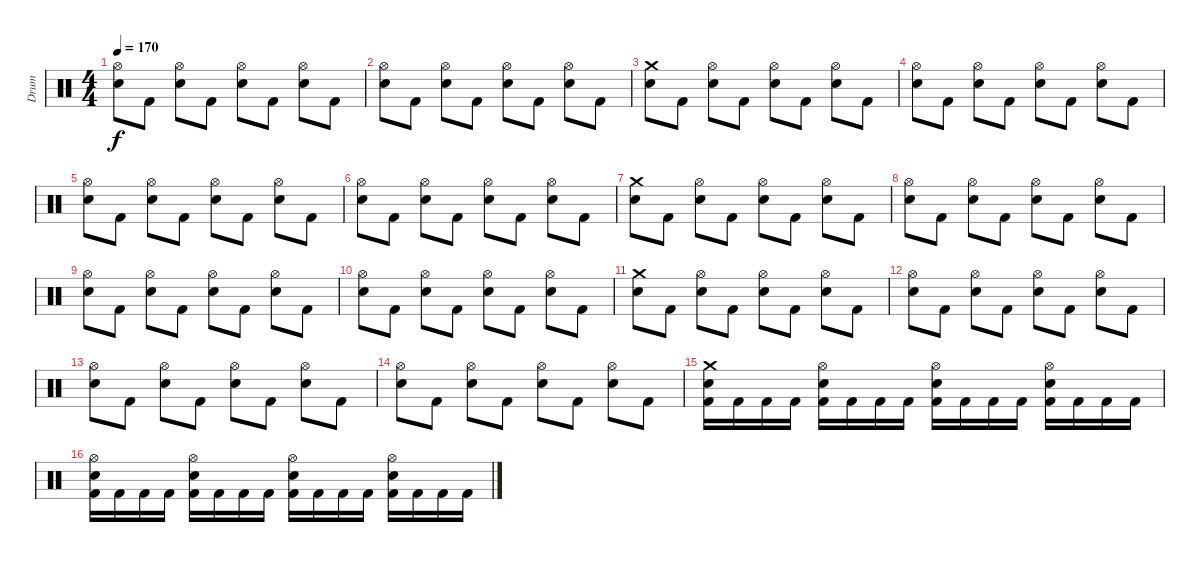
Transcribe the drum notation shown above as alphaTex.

\track ("Drum" "Drum") {instrument percussion}
\staff
\articulation defaults
\ts (4 4)
\tempo 170
\clef neutral
\ks c
("Hi-Hat (open)" "Electric Snare (hit)").8{dy f} "Kick (hit) 2".8 ("Hi-Hat (open)" "Electric Snare (hit)").8 "Kick (hit) 2".8 ("Hi-Hat (open)" "Electric Snare (hit)").8 "Kick (hit) 2".8 ("Hi-Hat (open)" "Electric Snare (hit)").8 "Kick (hit) 2".8 |
("Hi-Hat (open)" "Electric Snare (hit)").8 "Kick (hit) 2".8 ("Hi-Hat (open)" "Electric Snare (hit)").8 "Kick (hit) 2".8 ("Hi-Hat (open)" "Electric Snare (hit)").8 "Kick (hit) 2".8 ("Hi-Hat (open)" "Electric Snare (hit)").8 "Kick (hit) 2".8 |
("Crash medium (hit)" "Electric Snare (hit)").8 "Kick (hit) 2".8 ("Hi-Hat (open)" "Electric Snare (hit)").8 "Kick (hit) 2".8 ("Hi-Hat (open)" "Electric Snare (hit)").8 "Kick (hit) 2".8 ("Hi-Hat (open)" "Electric Snare (hit)").8 "Kick (hit) 2".8 |
("Hi-Hat (open)" "Electric Snare (hit)").8 "Kick (hit) 2".8 ("Hi-Hat (open)" "Electric Snare (hit)").8 "Kick (hit) 2".8 ("Hi-Hat (open)" "Electric Snare (hit)").8 "Kick (hit) 2".8 ("Hi-Hat (open)" "Electric Snare (hit)").8 "Kick (hit) 2".8 |
("Hi-Hat (open)" "Electric Snare (hit)").8 "Kick (hit) 2".8 ("Hi-Hat (open)" "Electric Snare (hit)").8 "Kick (hit) 2".8 ("Hi-Hat (open)" "Electric Snare (hit)").8 "Kick (hit) 2".8 ("Hi-Hat (open)" "Electric Snare (hit)").8 "Kick (hit) 2".8 |
("Hi-Hat (open)" "Electric Snare (hit)").8 "Kick (hit) 2".8 ("Hi-Hat (open)" "Electric Snare (hit)").8 "Kick (hit) 2".8 ("Hi-Hat (open)" "Electric Snare (hit)").8 "Kick (hit) 2".8 ("Hi-Hat (open)" "Electric Snare (hit)").8 "Kick (hit) 2".8 |
("Crash medium (hit)" "Electric Snare (hit)").8 "Kick (hit) 2".8 ("Hi-Hat (open)" "Electric Snare (hit)").8 "Kick (hit) 2".8 ("Hi-Hat (open)" "Electric Snare (hit)").8 "Kick (hit) 2".8 ("Hi-Hat (open)" "Electric Snare (hit)").8 "Kick (hit) 2".8 |
("Hi-Hat (open)" "Electric Snare (hit)").8 "Kick (hit) 2".8 ("Hi-Hat (open)" "Electric Snare (hit)").8 "Kick (hit) 2".8 ("Hi-Hat (open)" "Electric Snare (hit)").8 "Kick (hit) 2".8 ("Hi-Hat (open)" "Electric Snare (hit)").8 "Kick (hit) 2".8 |
("Hi-Hat (open)" "Electric Snare (hit)").8 "Kick (hit) 2".8 ("Hi-Hat (open)" "Electric Snare (hit)").8 "Kick (hit) 2".8 ("Hi-Hat (open)" "Electric Snare (hit)").8 "Kick (hit) 2".8 ("Hi-Hat (open)" "Electric Snare (hit)").8 "Kick (hit) 2".8 |
("Hi-Hat (open)" "Electric Snare (hit)").8 "Kick (hit) 2".8 ("Hi-Hat (open)" "Electric Snare (hit)").8 "Kick (hit) 2".8 ("Hi-Hat (open)" "Electric Snare (hit)").8 "Kick (hit) 2".8 ("Hi-Hat (open)" "Electric Snare (hit)").8 "Kick (hit) 2".8 |
("Crash medium (hit)" "Electric Snare (hit)").8 "Kick (hit) 2".8 ("Hi-Hat (open)" "Electric Snare (hit)").8 "Kick (hit) 2".8 ("Hi-Hat (open)" "Electric Snare (hit)").8 "Kick (hit) 2".8 ("Hi-Hat (open)" "Electric Snare (hit)").8 "Kick (hit) 2".8 |
("Hi-Hat (open)" "Electric Snare (hit)").8 "Kick (hit) 2".8 ("Hi-Hat (open)" "Electric Snare (hit)").8 "Kick (hit) 2".8 ("Hi-Hat (open)" "Electric Snare (hit)").8 "Kick (hit) 2".8 ("Hi-Hat (open)" "Electric Snare (hit)").8 "Kick (hit) 2".8 |
("Hi-Hat (open)" "Electric Snare (hit)").8 "Kick (hit) 2".8 ("Hi-Hat (open)" "Electric Snare (hit)").8 "Kick (hit) 2".8 ("Hi-Hat (open)" "Electric Snare (hit)").8 "Kick (hit) 2".8 ("Hi-Hat (open)" "Electric Snare (hit)").8 "Kick (hit) 2".8 |
("Hi-Hat (open)" "Electric Snare (hit)").8 "Kick (hit) 2".8 ("Hi-Hat (open)" "Electric Snare (hit)").8 "Kick (hit) 2".8 ("Hi-Hat (open)" "Electric Snare (hit)").8 "Kick (hit) 2".8 ("Hi-Hat (open)" "Electric Snare (hit)").8 "Kick (hit) 2".8 |
("Crash medium (hit)" "Electric Snare (hit)" "Kick (hit) 2").16 "Kick (hit) 2".16 "Kick (hit) 2".16 "Kick (hit) 2".16 ("Hi-Hat (open)" "Electric Snare (hit)" "Kick (hit) 2").16 "Kick (hit) 2".16 "Kick (hit) 2".16 "Kick (hit) 2".16 ("Hi-Hat (open)" "Electric Snare (hit)" "Kick (hit) 2").16 "Kick (hit) 2".16 "Kick (hit) 2".16 "Kick (hit) 2".16 ("Hi-Hat (open)" "Electric Snare (hit)" "Kick (hit) 2").16 "Kick (hit) 2".16 "Kick (hit) 2".16 "Kick (hit) 2".16 |
("Hi-Hat (open)" "Electric Snare (hit)" "Kick (hit) 2").16 "Kick (hit) 2".16 "Kick (hit) 2".16 "Kick (hit) 2".16 ("Hi-Hat (open)" "Electric Snare (hit)" "Kick (hit) 2").16 "Kick (hit) 2".16 "Kick (hit) 2".16 "Kick (hit) 2".16 ("Hi-Hat (open)" "Electric Snare (hit)" "Kick (hit) 2").16 "Kick (hit) 2".16 "Kick (hit) 2".16 "Kick (hit) 2".16 ("Hi-Hat (open)" "Electric Snare (hit)" "Kick (hit) 2").16 "Kick (hit) 2".16 "Kick (hit) 2".16 "Kick (hit) 2".16
